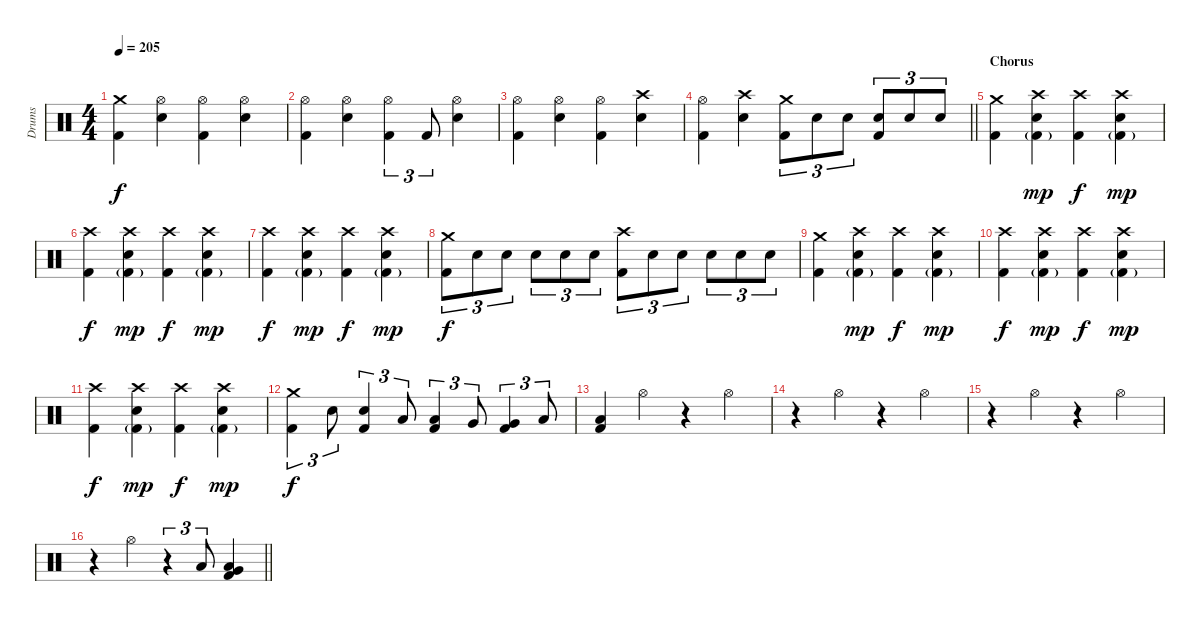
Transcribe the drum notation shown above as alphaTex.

\track ("Drums" "Drums") {instrument percussion}
\staff {score}
\articulation defaults
\ts (4 4)
\tempo 205
\clef neutral
\ks c
("Crash medium (hit)" "Kick (hit) 2").4{dy f} ("Hi-Hat (open)" "Electric Snare (hit)").4 ("Hi-Hat (open)" "Kick (hit) 2").4 ("Hi-Hat (open)" "Electric Snare (hit)").4 |
("Hi-Hat (open)" "Kick (hit) 2").4 ("Hi-Hat (open)" "Electric Snare (hit)").4 ("Hi-Hat (open)" "Kick (hit) 2").4{tu (3 2)} "Kick (hit) 2".8{tu (3 2)} ("Hi-Hat (open)" "Electric Snare (hit)").4 |
("Hi-Hat (open)" "Kick (hit) 2").4 ("Hi-Hat (open)" "Electric Snare (hit)").4 ("Hi-Hat (open)" "Kick (hit) 2").4 ("Crash high (hit)" "Electric Snare (hit)").4 |
\barLineRight lightlight
("Hi-Hat (open)" "Kick (hit) 2").4 ("Crash high (hit)" "Electric Snare (hit)").4 ("Crash medium (hit)" "Kick (hit) 2").8{tu (3 2)} "Electric Snare (hit)".8{tu (3 2)} "Electric Snare (hit)".8{tu (3 2)} ("Electric Snare (hit)" "Kick (hit) 2").8{tu (3 2)} "Electric Snare (hit)".8{tu (3 2)} "Electric Snare (hit)".8{tu (3 2)} |
\section ("" "Chorus")
("Crash medium (hit)" "Kick (hit) 2").4 ("Crash high (hit)" "Electric Snare (hit)" "Kick (hit) 2"{g}).4{dy mp} ("Crash high (hit)" "Kick (hit) 2").4{dy f} ("Crash high (hit)" "Electric Snare (hit)" "Kick (hit) 2"{g}).4{dy mp} |
("Crash high (hit)" "Kick (hit) 2").4{dy f} ("Crash high (hit)" "Electric Snare (hit)" "Kick (hit) 2"{g}).4{dy mp} ("Crash high (hit)" "Kick (hit) 2").4{dy f} ("Crash high (hit)" "Electric Snare (hit)" "Kick (hit) 2"{g}).4{dy mp} |
("Crash high (hit)" "Kick (hit) 2").4{dy f} ("Crash high (hit)" "Electric Snare (hit)" "Kick (hit) 2"{g}).4{dy mp} ("Crash high (hit)" "Kick (hit) 2").4{dy f} ("Crash high (hit)" "Electric Snare (hit)" "Kick (hit) 2"{g}).4{dy mp} |
("Crash medium (hit)" "Kick (hit) 2").8{tu (3 2) dy f} "Electric Snare (hit)".8{tu (3 2)} "Electric Snare (hit)".8{tu (3 2)} "Electric Snare (hit)".8{tu (3 2)} "Electric Snare (hit)".8{tu (3 2)} "Electric Snare (hit)".8{tu (3 2)} ("Crash high (hit)" "Kick (hit) 2").8{tu (3 2)} "Electric Snare (hit)".8{tu (3 2)} "Electric Snare (hit)".8{tu (3 2)} "Electric Snare (hit)".8{tu (3 2)} "Electric Snare (hit)".8{tu (3 2)} "Electric Snare (hit)".8{tu (3 2)} |
("Crash medium (hit)" "Kick (hit) 2").4 ("Crash high (hit)" "Electric Snare (hit)" "Kick (hit) 2"{g}).4{dy mp} ("Crash high (hit)" "Kick (hit) 2").4{dy f} ("Crash high (hit)" "Electric Snare (hit)" "Kick (hit) 2"{g}).4{dy mp} |
("Crash high (hit)" "Kick (hit) 2").4{dy f} ("Crash high (hit)" "Electric Snare (hit)" "Kick (hit) 2"{g}).4{dy mp} ("Crash high (hit)" "Kick (hit) 2").4{dy f} ("Crash high (hit)" "Electric Snare (hit)" "Kick (hit) 2"{g}).4{dy mp} |
("Crash high (hit)" "Kick (hit) 2").4{dy f} ("Crash high (hit)" "Electric Snare (hit)" "Kick (hit) 2"{g}).4{dy mp} ("Crash high (hit)" "Kick (hit) 2").4{dy f} ("Crash high (hit)" "Electric Snare (hit)" "Kick (hit) 2"{g}).4{dy mp} |
("Crash medium (hit)" "Kick (hit) 2").4{tu (3 2) dy f} "Electric Snare (hit)".8{tu (3 2)} ("Electric Snare (hit)" "Kick (hit) 2").4{tu (3 2)} "Low Tom (hit)".8{tu (3 2)} ("Low Tom (hit)" "Kick (hit) 2").4{tu (3 2)} "Very Low Tom (hit)".8{tu (3 2)} ("Very Low Tom (hit)" "Kick (hit) 2").4{tu (3 2)} "Low Floor Tom (hit)".8{tu (3 2)} |
("Low Floor Tom (hit)" "Kick (hit) 2").4 "Hi-Hat (open)".4 r.4 "Hi-Hat (open)".4 |
r.4 "Hi-Hat (open)".4 r.4 "Hi-Hat (open)".4 |
r.4 "Hi-Hat (open)".4 r.4 "Hi-Hat (open)".4 |
\barLineRight lightlight
r.4 "Hi-Hat (open)".4 r.4{tu (3 2)} "Low Floor Tom (hit)".8{tu (3 2)} ("Low Floor Tom (hit)" "Very Low Tom (hit)" "Kick (hit) 2").4
